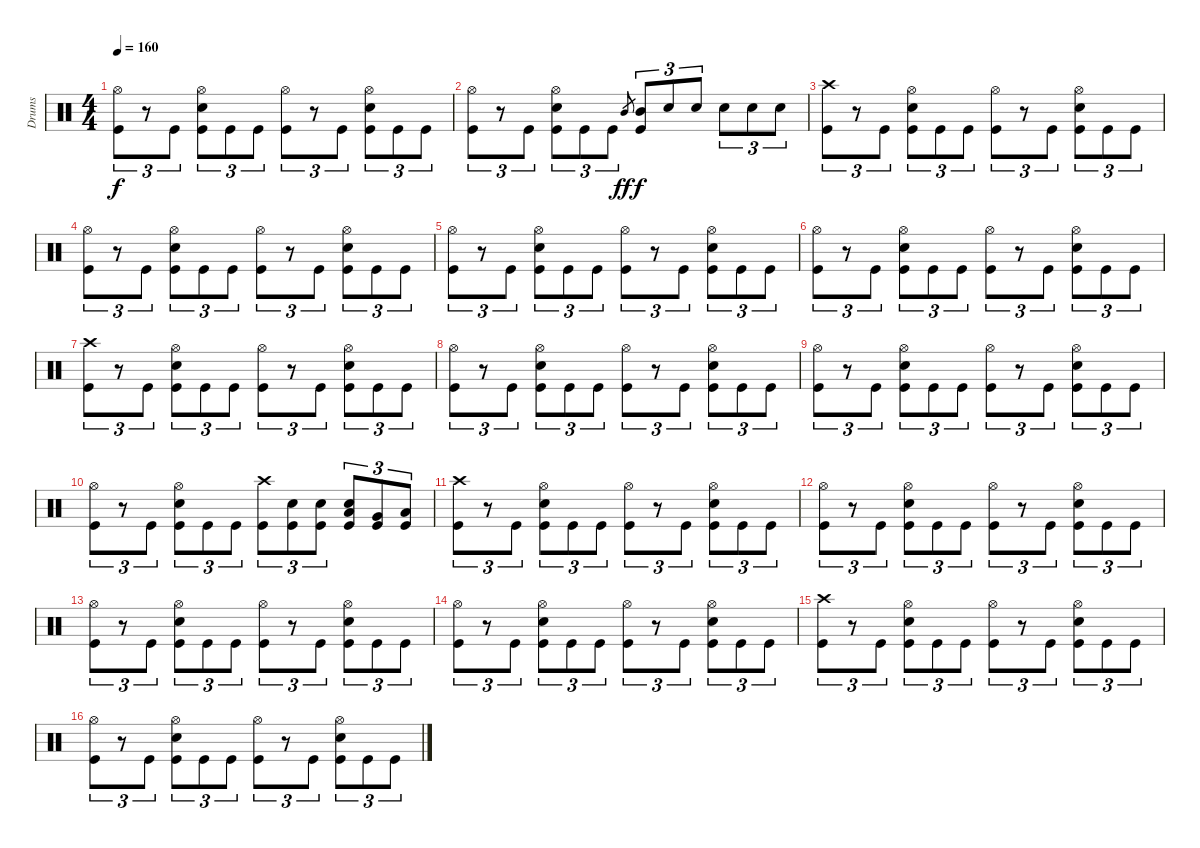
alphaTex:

\track ("Drums" "Drums") {instrument percussion}
\staff {score}
\articulation defaults
\ts (4 4)
\tempo 160
\clef neutral
\ks c
("Hi-Hat (open)" "Kick (hit)").8{tu (3 2) dy f} r.8{tu (3 2)} "Kick (hit)".8{tu (3 2)} ("Hi-Hat (open)" "Snare (hit) 2" "Kick (hit)").8{tu (3 2)} "Kick (hit)".8{tu (3 2)} "Kick (hit)".8{tu (3 2)} ("Hi-Hat (open)" "Kick (hit)").8{tu (3 2)} r.8{tu (3 2)} "Kick (hit)".8{tu (3 2)} ("Hi-Hat (open)" "Snare (hit) 2" "Kick (hit)").8{tu (3 2)} "Kick (hit)".8{tu (3 2)} "Kick (hit)".8{tu (3 2)} |
("Hi-Hat (open)" "Kick (hit)").8{tu (3 2)} r.8{tu (3 2)} "Kick (hit)".8{tu (3 2)} ("Hi-Hat (open)" "Snare (hit) 2" "Kick (hit)").8{tu (3 2)} "Kick (hit)".8{tu (3 2)} "Kick (hit)".8{tu (3 2)} "Mid Tom (hit)".8{gr dy ff} ("Mid Tom (hit)" "Kick (hit)").8{tu (3 2) dy f} "Snare (hit) 2".8{tu (3 2)} "Snare (hit) 2".8{tu (3 2)} "Snare (hit) 2".8{tu (3 2)} "Snare (hit) 2".8{tu (3 2)} "Snare (hit) 2".8{tu (3 2)} |
("Crash high (hit)" "Kick (hit)").8{tu (3 2)} r.8{tu (3 2)} "Kick (hit)".8{tu (3 2)} ("Hi-Hat (open)" "Snare (hit) 2" "Kick (hit)").8{tu (3 2)} "Kick (hit)".8{tu (3 2)} "Kick (hit)".8{tu (3 2)} ("Hi-Hat (open)" "Kick (hit)").8{tu (3 2)} r.8{tu (3 2)} "Kick (hit)".8{tu (3 2)} ("Hi-Hat (open)" "Snare (hit) 2" "Kick (hit)").8{tu (3 2)} "Kick (hit)".8{tu (3 2)} "Kick (hit)".8{tu (3 2)} |
("Hi-Hat (open)" "Kick (hit)").8{tu (3 2)} r.8{tu (3 2)} "Kick (hit)".8{tu (3 2)} ("Hi-Hat (open)" "Snare (hit) 2" "Kick (hit)").8{tu (3 2)} "Kick (hit)".8{tu (3 2)} "Kick (hit)".8{tu (3 2)} ("Hi-Hat (open)" "Kick (hit)").8{tu (3 2)} r.8{tu (3 2)} "Kick (hit)".8{tu (3 2)} ("Hi-Hat (open)" "Snare (hit) 2" "Kick (hit)").8{tu (3 2)} "Kick (hit)".8{tu (3 2)} "Kick (hit)".8{tu (3 2)} |
("Hi-Hat (open)" "Kick (hit)").8{tu (3 2)} r.8{tu (3 2)} "Kick (hit)".8{tu (3 2)} ("Hi-Hat (open)" "Snare (hit) 2" "Kick (hit)").8{tu (3 2)} "Kick (hit)".8{tu (3 2)} "Kick (hit)".8{tu (3 2)} ("Hi-Hat (open)" "Kick (hit)").8{tu (3 2)} r.8{tu (3 2)} "Kick (hit)".8{tu (3 2)} ("Hi-Hat (open)" "Snare (hit) 2" "Kick (hit)").8{tu (3 2)} "Kick (hit)".8{tu (3 2)} "Kick (hit)".8{tu (3 2)} |
("Hi-Hat (open)" "Kick (hit)").8{tu (3 2)} r.8{tu (3 2)} "Kick (hit)".8{tu (3 2)} ("Hi-Hat (open)" "Snare (hit) 2" "Kick (hit)").8{tu (3 2)} "Kick (hit)".8{tu (3 2)} "Kick (hit)".8{tu (3 2)} ("Hi-Hat (open)" "Kick (hit)").8{tu (3 2)} r.8{tu (3 2)} "Kick (hit)".8{tu (3 2)} ("Hi-Hat (open)" "Snare (hit) 2" "Kick (hit)").8{tu (3 2)} "Kick (hit)".8{tu (3 2)} "Kick (hit)".8{tu (3 2)} |
("Crash high (hit)" "Kick (hit)").8{tu (3 2)} r.8{tu (3 2)} "Kick (hit)".8{tu (3 2)} ("Hi-Hat (open)" "Snare (hit) 2" "Kick (hit)").8{tu (3 2)} "Kick (hit)".8{tu (3 2)} "Kick (hit)".8{tu (3 2)} ("Hi-Hat (open)" "Kick (hit)").8{tu (3 2)} r.8{tu (3 2)} "Kick (hit)".8{tu (3 2)} ("Hi-Hat (open)" "Snare (hit) 2" "Kick (hit)").8{tu (3 2)} "Kick (hit)".8{tu (3 2)} "Kick (hit)".8{tu (3 2)} |
("Hi-Hat (open)" "Kick (hit)").8{tu (3 2)} r.8{tu (3 2)} "Kick (hit)".8{tu (3 2)} ("Hi-Hat (open)" "Snare (hit) 2" "Kick (hit)").8{tu (3 2)} "Kick (hit)".8{tu (3 2)} "Kick (hit)".8{tu (3 2)} ("Hi-Hat (open)" "Kick (hit)").8{tu (3 2)} r.8{tu (3 2)} "Kick (hit)".8{tu (3 2)} ("Hi-Hat (open)" "Snare (hit) 2" "Kick (hit)").8{tu (3 2)} "Kick (hit)".8{tu (3 2)} "Kick (hit)".8{tu (3 2)} |
("Hi-Hat (open)" "Kick (hit)").8{tu (3 2)} r.8{tu (3 2)} "Kick (hit)".8{tu (3 2)} ("Hi-Hat (open)" "Snare (hit) 2" "Kick (hit)").8{tu (3 2)} "Kick (hit)".8{tu (3 2)} "Kick (hit)".8{tu (3 2)} ("Hi-Hat (open)" "Kick (hit)").8{tu (3 2)} r.8{tu (3 2)} "Kick (hit)".8{tu (3 2)} ("Hi-Hat (open)" "Snare (hit) 2" "Kick (hit)").8{tu (3 2)} "Kick (hit)".8{tu (3 2)} "Kick (hit)".8{tu (3 2)} |
("Hi-Hat (open)" "Kick (hit)").8{tu (3 2)} r.8{tu (3 2)} "Kick (hit)".8{tu (3 2)} ("Hi-Hat (open)" "Snare (hit) 2" "Kick (hit)").8{tu (3 2)} "Kick (hit)".8{tu (3 2)} "Kick (hit)".8{tu (3 2)} ("Crash high (hit)" "Kick (hit)").8{tu (3 2)} ("Snare (hit) 2" "Kick (hit)").8{tu (3 2)} ("Snare (hit) 2" "Kick (hit)").8{tu (3 2)} ("Low Tom (hit)" "Snare (hit) 2" "Kick (hit)").8{tu (3 2)} ("Very Low Tom (hit)" "Kick (hit)").8{tu (3 2)} ("Low Floor Tom (hit)" "Kick (hit)").8{tu (3 2)} |
("Crash high (hit)" "Kick (hit)").8{tu (3 2)} r.8{tu (3 2)} "Kick (hit)".8{tu (3 2)} ("Hi-Hat (open)" "Snare (hit) 2" "Kick (hit)").8{tu (3 2)} "Kick (hit)".8{tu (3 2)} "Kick (hit)".8{tu (3 2)} ("Hi-Hat (open)" "Kick (hit)").8{tu (3 2)} r.8{tu (3 2)} "Kick (hit)".8{tu (3 2)} ("Hi-Hat (open)" "Snare (hit) 2" "Kick (hit)").8{tu (3 2)} "Kick (hit)".8{tu (3 2)} "Kick (hit)".8{tu (3 2)} |
("Hi-Hat (open)" "Kick (hit)").8{tu (3 2)} r.8{tu (3 2)} "Kick (hit)".8{tu (3 2)} ("Hi-Hat (open)" "Snare (hit) 2" "Kick (hit)").8{tu (3 2)} "Kick (hit)".8{tu (3 2)} "Kick (hit)".8{tu (3 2)} ("Hi-Hat (open)" "Kick (hit)").8{tu (3 2)} r.8{tu (3 2)} "Kick (hit)".8{tu (3 2)} ("Hi-Hat (open)" "Snare (hit) 2" "Kick (hit)").8{tu (3 2)} "Kick (hit)".8{tu (3 2)} "Kick (hit)".8{tu (3 2)} |
("Hi-Hat (open)" "Kick (hit)").8{tu (3 2)} r.8{tu (3 2)} "Kick (hit)".8{tu (3 2)} ("Hi-Hat (open)" "Snare (hit) 2" "Kick (hit)").8{tu (3 2)} "Kick (hit)".8{tu (3 2)} "Kick (hit)".8{tu (3 2)} ("Hi-Hat (open)" "Kick (hit)").8{tu (3 2)} r.8{tu (3 2)} "Kick (hit)".8{tu (3 2)} ("Hi-Hat (open)" "Snare (hit) 2" "Kick (hit)").8{tu (3 2)} "Kick (hit)".8{tu (3 2)} "Kick (hit)".8{tu (3 2)} |
("Hi-Hat (open)" "Kick (hit)").8{tu (3 2)} r.8{tu (3 2)} "Kick (hit)".8{tu (3 2)} ("Hi-Hat (open)" "Snare (hit) 2" "Kick (hit)").8{tu (3 2)} "Kick (hit)".8{tu (3 2)} "Kick (hit)".8{tu (3 2)} ("Hi-Hat (open)" "Kick (hit)").8{tu (3 2)} r.8{tu (3 2)} "Kick (hit)".8{tu (3 2)} ("Hi-Hat (open)" "Snare (hit) 2" "Kick (hit)").8{tu (3 2)} "Kick (hit)".8{tu (3 2)} "Kick (hit)".8{tu (3 2)} |
("Crash high (hit)" "Kick (hit)").8{tu (3 2)} r.8{tu (3 2)} "Kick (hit)".8{tu (3 2)} ("Hi-Hat (open)" "Snare (hit) 2" "Kick (hit)").8{tu (3 2)} "Kick (hit)".8{tu (3 2)} "Kick (hit)".8{tu (3 2)} ("Hi-Hat (open)" "Kick (hit)").8{tu (3 2)} r.8{tu (3 2)} "Kick (hit)".8{tu (3 2)} ("Hi-Hat (open)" "Snare (hit) 2" "Kick (hit)").8{tu (3 2)} "Kick (hit)".8{tu (3 2)} "Kick (hit)".8{tu (3 2)} |
("Hi-Hat (open)" "Kick (hit)").8{tu (3 2)} r.8{tu (3 2)} "Kick (hit)".8{tu (3 2)} ("Hi-Hat (open)" "Snare (hit) 2" "Kick (hit)").8{tu (3 2)} "Kick (hit)".8{tu (3 2)} "Kick (hit)".8{tu (3 2)} ("Hi-Hat (open)" "Kick (hit)").8{tu (3 2)} r.8{tu (3 2)} "Kick (hit)".8{tu (3 2)} ("Hi-Hat (open)" "Snare (hit) 2" "Kick (hit)").8{tu (3 2)} "Kick (hit)".8{tu (3 2)} "Kick (hit)".8{tu (3 2)}
